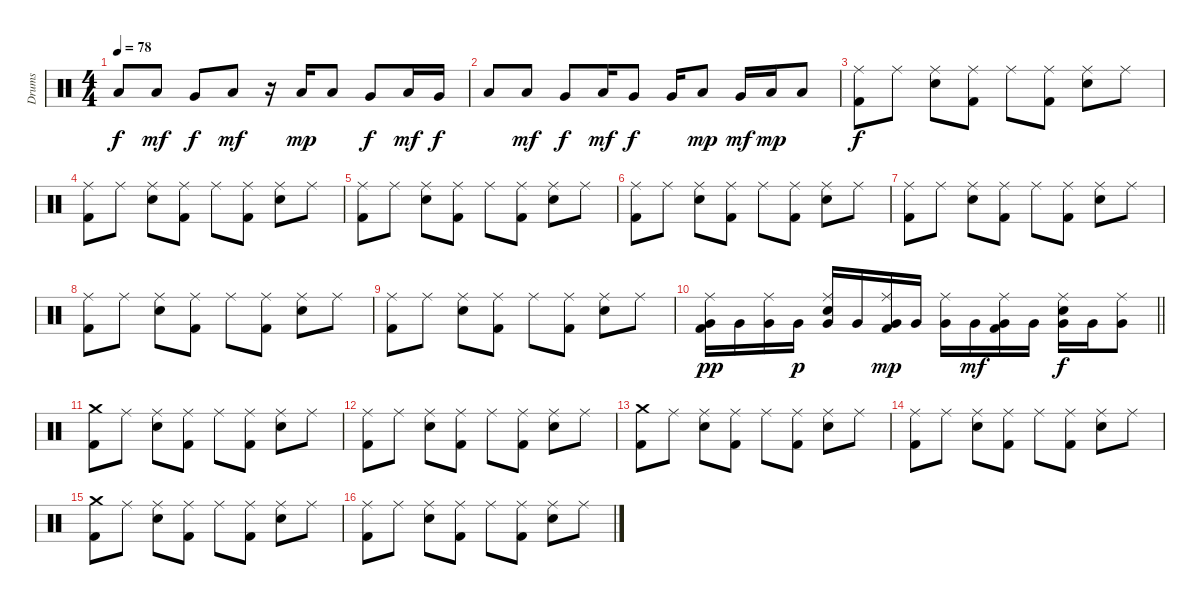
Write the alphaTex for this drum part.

\track ("Drums" "Drums") {instrument percussion}
\staff {score}
\articulation defaults
\ts (4 4)
\tempo 78
\clef neutral
\ks c "Low Floor Tom (hit)".8{dy f} "Low Floor Tom (hit)".8{dy mf} "Very Low Tom (hit)".8{dy f} "Low Floor Tom (hit)".8{dy mf}
r.16 "Low Floor Tom (hit)".16{dy mp} "Low Floor Tom (hit)".8 "Very Low Tom (hit)".8{dy f} "Low Floor Tom (hit)".16{dy mf} "Very Low Tom (hit)".16{dy f} |
"Low Floor Tom (hit)".8 "Low Floor Tom (hit)".8{dy mf} "Very Low Tom (hit)".8{dy f} "Low Floor Tom (hit)".16{dy mf} "Very Low Tom (hit)".8{dy f} "Very Low Tom (hit)".16 "Low Floor Tom (hit)".8{dy mp} "Very Low Tom (hit)".16{dy mf} "Low Floor Tom (hit)".16{dy mp} "Low Floor Tom (hit)".8 |
("Ride (middle)" "Kick (hit) 2").8{dy f} "Ride (middle)".8 ("Ride (middle)" "Electric Snare (hit)").8 ("Ride (middle)" "Kick (hit) 2").8 "Ride (middle)".8 ("Ride (middle)" "Kick (hit) 2").8 ("Ride (middle)" "Electric Snare (hit)").8 "Ride (middle)".8 |
("Ride (middle)" "Kick (hit) 2").8 "Ride (middle)".8 ("Ride (middle)" "Electric Snare (hit)").8 ("Ride (middle)" "Kick (hit) 2").8 "Ride (middle)".8 ("Ride (middle)" "Kick (hit) 2").8 ("Ride (middle)" "Electric Snare (hit)").8 "Ride (middle)".8 |
("Ride (middle)" "Kick (hit) 2").8 "Ride (middle)".8 ("Ride (middle)" "Electric Snare (hit)").8 ("Ride (middle)" "Kick (hit) 2").8 "Ride (middle)".8 ("Ride (middle)" "Kick (hit) 2").8 ("Ride (middle)" "Electric Snare (hit)").8 "Ride (middle)".8 |
("Ride (middle)" "Kick (hit) 2").8 "Ride (middle)".8 ("Ride (middle)" "Electric Snare (hit)").8 ("Ride (middle)" "Kick (hit) 2").8 "Ride (middle)".8 ("Ride (middle)" "Kick (hit) 2").8 ("Ride (middle)" "Electric Snare (hit)").8 "Ride (middle)".8 |
("Ride (middle)" "Kick (hit) 2").8 "Ride (middle)".8 ("Ride (middle)" "Electric Snare (hit)").8 ("Ride (middle)" "Kick (hit) 2").8 "Ride (middle)".8 ("Ride (middle)" "Kick (hit) 2").8 ("Ride (middle)" "Electric Snare (hit)").8 "Ride (middle)".8 |
("Ride (middle)" "Kick (hit) 2").8 "Ride (middle)".8 ("Ride (middle)" "Electric Snare (hit)").8 ("Ride (middle)" "Kick (hit) 2").8 "Ride (middle)".8 ("Ride (middle)" "Kick (hit) 2").8 ("Ride (middle)" "Electric Snare (hit)").8 "Ride (middle)".8 |
("Ride (middle)" "Kick (hit) 2").8 "Ride (middle)".8 ("Ride (middle)" "Electric Snare (hit)").8 ("Ride (middle)" "Kick (hit) 2").8 "Ride (middle)".8 ("Ride (middle)" "Kick (hit) 2").8 ("Ride (middle)" "Electric Snare (hit)").8 "Ride (middle)".8 |
\barLineRight lightlight
("Ride (middle)" "Very Low Tom (hit)" "Kick (hit) 2").16{dy pp} "Very Low Tom (hit)".16 ("Ride (middle)" "Very Low Tom (hit)").16 "Very Low Tom (hit)".16{dy p} ("Ride (middle)" "Very Low Tom (hit)" "Electric Snare (hit)").16 "Very Low Tom (hit)".16 ("Ride (middle)" "Very Low Tom (hit)" "Kick (hit) 2").16{dy mp} "Very Low Tom (hit)".16 ("Ride (middle)" "Very Low Tom (hit)").16 "Very Low Tom (hit)".16{dy mf} ("Ride (middle)" "Very Low Tom (hit)" "Kick (hit) 2").16 "Very Low Tom (hit)".16 ("Ride (middle)" "Very Low Tom (hit)" "Electric Snare (hit)").16{dy f} "Very Low Tom (hit)".16 ("Ride (middle)" "Very Low Tom (hit)").8 |
("Crash medium (hit)" "Kick (hit) 2").8 "Ride (middle)".8 ("Ride (middle)" "Electric Snare (hit)").8 ("Ride (middle)" "Kick (hit) 2").8 "Ride (middle)".8 ("Ride (middle)" "Kick (hit) 2").8 ("Ride (middle)" "Electric Snare (hit)").8 "Ride (middle)".8 |
("Ride (middle)" "Kick (hit) 2").8 "Ride (middle)".8 ("Ride (middle)" "Electric Snare (hit)").8 ("Ride (middle)" "Kick (hit) 2").8 "Ride (middle)".8 ("Ride (middle)" "Kick (hit) 2").8 ("Ride (middle)" "Electric Snare (hit)").8 "Ride (middle)".8 |
("Crash medium (hit)" "Kick (hit) 2").8 "Ride (middle)".8 ("Ride (middle)" "Electric Snare (hit)").8 ("Ride (middle)" "Kick (hit) 2").8 "Ride (middle)".8 ("Ride (middle)" "Kick (hit) 2").8 ("Ride (middle)" "Electric Snare (hit)").8 "Ride (middle)".8 |
("Ride (middle)" "Kick (hit) 2").8 "Ride (middle)".8 ("Ride (middle)" "Electric Snare (hit)").8 ("Ride (middle)" "Kick (hit) 2").8 "Ride (middle)".8 ("Ride (middle)" "Kick (hit) 2").8 ("Ride (middle)" "Electric Snare (hit)").8 "Ride (middle)".8 |
("Crash medium (hit)" "Kick (hit) 2").8 "Ride (middle)".8 ("Ride (middle)" "Electric Snare (hit)").8 ("Ride (middle)" "Kick (hit) 2").8 "Ride (middle)".8 ("Ride (middle)" "Kick (hit) 2").8 ("Ride (middle)" "Electric Snare (hit)").8 "Ride (middle)".8 |
("Ride (middle)" "Kick (hit) 2").8 "Ride (middle)".8 ("Ride (middle)" "Electric Snare (hit)").8 ("Ride (middle)" "Kick (hit) 2").8 "Ride (middle)".8 ("Ride (middle)" "Kick (hit) 2").8 ("Ride (middle)" "Electric Snare (hit)").8 "Ride (middle)".8
